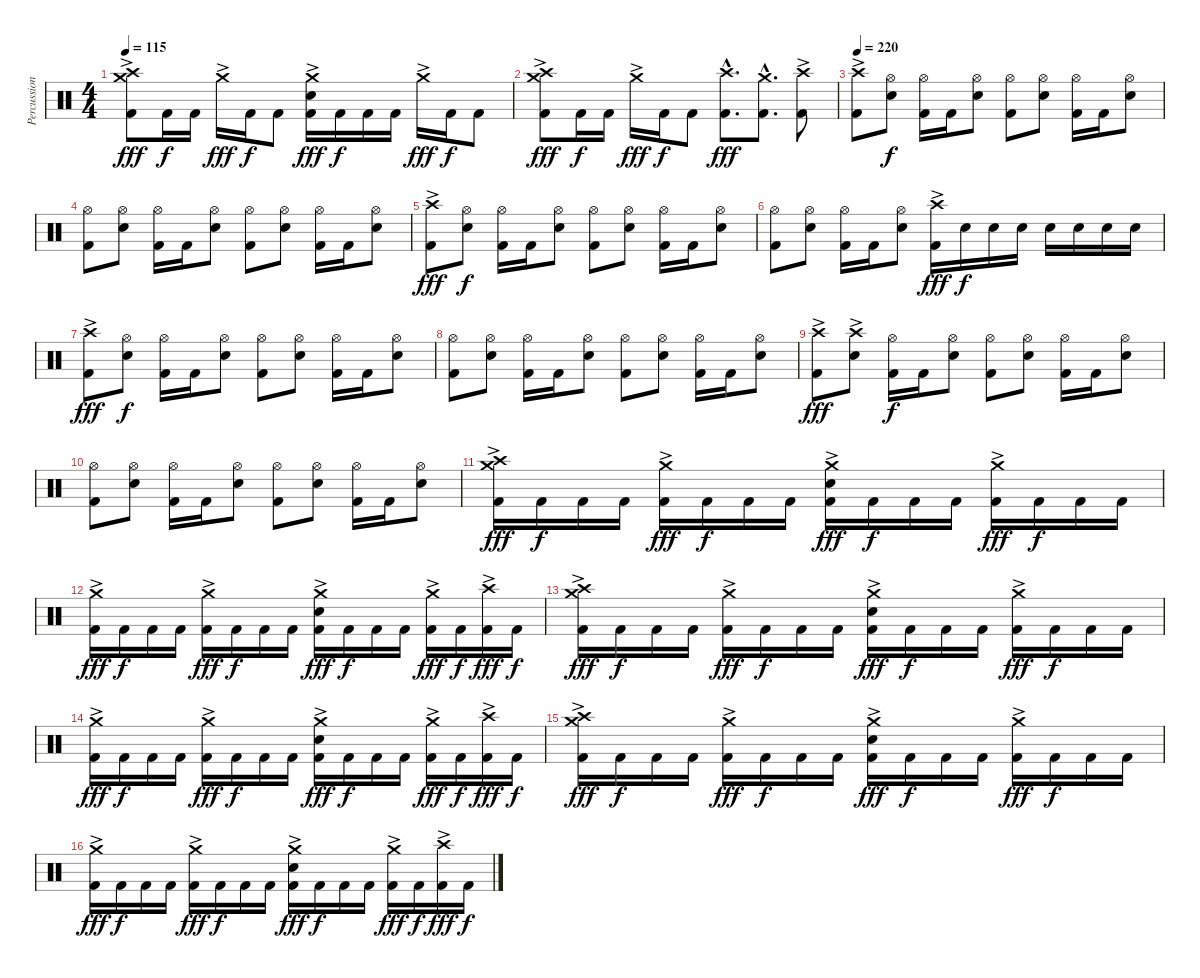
\track ("Percussion" "Percussion") {instrument percussion}
\staff {score}
\articulation defaults
\ts (4 4)
\tempo 115
\clef neutral
\ks c
("Crash high (hit)"{ac} "Crash medium (hit)"{ac} "Kick (hit) 2").8{dy fff} "Kick (hit) 2".16{dy f} "Kick (hit) 2".16 "Crash medium (hit)"{ac}.16{dy fff} "Kick (hit) 2".16{dy f} "Kick (hit) 2".8 ("Crash medium (hit)"{ac} "Electric Snare (hit)" "Kick (hit) 2").16{dy fff} "Kick (hit) 2".16{dy f} "Kick (hit) 2".16 "Kick (hit) 2".16 "Crash medium (hit)"{ac}.16{dy fff} "Kick (hit) 2".16{dy f} "Kick (hit) 2".8 |
("Crash high (hit)"{ac} "Crash medium (hit)"{ac} "Kick (hit) 2").8{dy fff} "Kick (hit) 2".16{dy f} "Kick (hit) 2".16 "Crash medium (hit)"{ac}.16{dy fff} "Kick (hit) 2".16{dy f} "Kick (hit) 2".8 ("Crash high (hit)"{hac} "Kick (hit) 2"{hac}).8{d dy fff} ("Crash medium (hit)"{hac} "Kick (hit) 2"{hac}).8{d} ("Crash high (hit)"{ac} "Kick (hit) 2").8 |
\tempo 220
("Crash high (hit)"{ac} "Kick (hit) 2").8 ("Hi-Hat (open)" "Electric Snare (hit)").8{dy f} ("Hi-Hat (open)" "Kick (hit) 2").16 "Kick (hit) 2".16 ("Hi-Hat (open)" "Electric Snare (hit)").8 ("Hi-Hat (open)" "Kick (hit) 2").8 ("Hi-Hat (open)" "Electric Snare (hit)").8 ("Hi-Hat (open)" "Kick (hit) 2").16 "Kick (hit) 2".16 ("Hi-Hat (open)" "Electric Snare (hit)").8 |
("Hi-Hat (open)" "Kick (hit) 2").8 ("Hi-Hat (open)" "Electric Snare (hit)").8 ("Hi-Hat (open)" "Kick (hit) 2").16 "Kick (hit) 2".16 ("Hi-Hat (open)" "Electric Snare (hit)").8 ("Hi-Hat (open)" "Kick (hit) 2").8 ("Hi-Hat (open)" "Electric Snare (hit)").8 ("Hi-Hat (open)" "Kick (hit) 2").16 "Kick (hit) 2".16 ("Hi-Hat (open)" "Electric Snare (hit)").8 |
("Crash high (hit)"{ac} "Kick (hit) 2").8{dy fff} ("Hi-Hat (open)" "Electric Snare (hit)").8{dy f} ("Hi-Hat (open)" "Kick (hit) 2").16 "Kick (hit) 2".16 ("Hi-Hat (open)" "Electric Snare (hit)").8 ("Hi-Hat (open)" "Kick (hit) 2").8 ("Hi-Hat (open)" "Electric Snare (hit)").8 ("Hi-Hat (open)" "Kick (hit) 2").16 "Kick (hit) 2".16 ("Hi-Hat (open)" "Electric Snare (hit)").8 |
("Hi-Hat (open)" "Kick (hit) 2").8 ("Hi-Hat (open)" "Electric Snare (hit)").8 ("Hi-Hat (open)" "Kick (hit) 2").16 "Kick (hit) 2".16 ("Hi-Hat (open)" "Electric Snare (hit)").8 ("Crash high (hit)"{ac} "Kick (hit) 2").16{dy fff} "Electric Snare (hit)".16{dy f} "Electric Snare (hit)".16 "Electric Snare (hit)".16 "Electric Snare (hit)".16 "Electric Snare (hit)".16 "Electric Snare (hit)".16 "Electric Snare (hit)".16 |
("Crash high (hit)"{ac} "Kick (hit) 2").8{dy fff} ("Hi-Hat (open)" "Electric Snare (hit)").8{dy f} ("Hi-Hat (open)" "Kick (hit) 2").16 "Kick (hit) 2".16 ("Hi-Hat (open)" "Electric Snare (hit)").8 ("Hi-Hat (open)" "Kick (hit) 2").8 ("Hi-Hat (open)" "Electric Snare (hit)").8 ("Hi-Hat (open)" "Kick (hit) 2").16 "Kick (hit) 2".16 ("Hi-Hat (open)" "Electric Snare (hit)").8 |
("Hi-Hat (open)" "Kick (hit) 2").8 ("Hi-Hat (open)" "Electric Snare (hit)").8 ("Hi-Hat (open)" "Kick (hit) 2").16 "Kick (hit) 2".16 ("Hi-Hat (open)" "Electric Snare (hit)").8 ("Hi-Hat (open)" "Kick (hit) 2").8 ("Hi-Hat (open)" "Electric Snare (hit)").8 ("Hi-Hat (open)" "Kick (hit) 2").16 "Kick (hit) 2".16 ("Hi-Hat (open)" "Electric Snare (hit)").8 |
("Crash high (hit)"{ac} "Kick (hit) 2").8{dy fff} ("Crash high (hit)"{ac} "Electric Snare (hit)").8 ("Hi-Hat (open)" "Kick (hit) 2").16{dy f} "Kick (hit) 2".16 ("Hi-Hat (open)" "Electric Snare (hit)").8 ("Hi-Hat (open)" "Kick (hit) 2").8 ("Hi-Hat (open)" "Electric Snare (hit)").8 ("Hi-Hat (open)" "Kick (hit) 2").16 "Kick (hit) 2".16 ("Hi-Hat (open)" "Electric Snare (hit)").8 |
("Hi-Hat (open)" "Kick (hit) 2").8 ("Hi-Hat (open)" "Electric Snare (hit)").8 ("Hi-Hat (open)" "Kick (hit) 2").16 "Kick (hit) 2".16 ("Hi-Hat (open)" "Electric Snare (hit)").8 ("Hi-Hat (open)" "Kick (hit) 2").8 ("Hi-Hat (open)" "Electric Snare (hit)").8 ("Hi-Hat (open)" "Kick (hit) 2").16 "Kick (hit) 2".16 ("Hi-Hat (open)" "Electric Snare (hit)").8 |
("Crash high (hit)" "Crash medium (hit)"{ac} "Kick (hit) 2").16{dy fff} "Kick (hit) 2".16{dy f} "Kick (hit) 2".16 "Kick (hit) 2".16 ("Crash medium (hit)"{ac} "Kick (hit) 2").16{dy fff} "Kick (hit) 2".16{dy f} "Kick (hit) 2".16 "Kick (hit) 2".16 ("Crash medium (hit)"{ac} "Electric Snare (hit)" "Kick (hit) 2").16{dy fff} "Kick (hit) 2".16{dy f} "Kick (hit) 2".16 "Kick (hit) 2".16 ("Crash medium (hit)"{ac} "Kick (hit) 2").16{dy fff} "Kick (hit) 2".16{dy f} "Kick (hit) 2".16 "Kick (hit) 2".16 |
("Crash medium (hit)"{ac} "Kick (hit) 2").16{dy fff} "Kick (hit) 2".16{dy f} "Kick (hit) 2".16 "Kick (hit) 2".16 ("Crash medium (hit)"{ac} "Kick (hit) 2").16{dy fff} "Kick (hit) 2".16{dy f} "Kick (hit) 2".16 "Kick (hit) 2".16 ("Crash medium (hit)"{ac} "Electric Snare (hit)" "Kick (hit) 2").16{dy fff} "Kick (hit) 2".16{dy f} "Kick (hit) 2".16 "Kick (hit) 2".16 ("Crash medium (hit)"{ac} "Kick (hit) 2").16{dy fff} "Kick (hit) 2".16{dy f} ("Crash high (hit)"{ac} "Kick (hit) 2").16{dy fff} "Kick (hit) 2".16{dy f} |
("Crash high (hit)" "Crash medium (hit)"{ac} "Kick (hit) 2").16{dy fff} "Kick (hit) 2".16{dy f} "Kick (hit) 2".16 "Kick (hit) 2".16 ("Crash medium (hit)"{ac} "Kick (hit) 2").16{dy fff} "Kick (hit) 2".16{dy f} "Kick (hit) 2".16 "Kick (hit) 2".16 ("Crash medium (hit)"{ac} "Electric Snare (hit)" "Kick (hit) 2").16{dy fff} "Kick (hit) 2".16{dy f} "Kick (hit) 2".16 "Kick (hit) 2".16 ("Crash medium (hit)"{ac} "Kick (hit) 2").16{dy fff} "Kick (hit) 2".16{dy f} "Kick (hit) 2".16 "Kick (hit) 2".16 |
("Crash medium (hit)"{ac} "Kick (hit) 2").16{dy fff} "Kick (hit) 2".16{dy f} "Kick (hit) 2".16 "Kick (hit) 2".16 ("Crash medium (hit)"{ac} "Kick (hit) 2").16{dy fff} "Kick (hit) 2".16{dy f} "Kick (hit) 2".16 "Kick (hit) 2".16 ("Crash medium (hit)"{ac} "Electric Snare (hit)" "Kick (hit) 2").16{dy fff} "Kick (hit) 2".16{dy f} "Kick (hit) 2".16 "Kick (hit) 2".16 ("Crash medium (hit)"{ac} "Kick (hit) 2").16{dy fff} "Kick (hit) 2".16{dy f} ("Crash high (hit)"{ac} "Kick (hit) 2").16{dy fff} "Kick (hit) 2".16{dy f} |
("Crash high (hit)" "Crash medium (hit)"{ac} "Kick (hit) 2").16{dy fff} "Kick (hit) 2".16{dy f} "Kick (hit) 2".16 "Kick (hit) 2".16 ("Crash medium (hit)"{ac} "Kick (hit) 2").16{dy fff} "Kick (hit) 2".16{dy f} "Kick (hit) 2".16 "Kick (hit) 2".16 ("Crash medium (hit)"{ac} "Electric Snare (hit)" "Kick (hit) 2").16{dy fff} "Kick (hit) 2".16{dy f} "Kick (hit) 2".16 "Kick (hit) 2".16 ("Crash medium (hit)"{ac} "Kick (hit) 2").16{dy fff} "Kick (hit) 2".16{dy f} "Kick (hit) 2".16 "Kick (hit) 2".16 |
("Crash medium (hit)"{ac} "Kick (hit) 2").16{dy fff} "Kick (hit) 2".16{dy f} "Kick (hit) 2".16 "Kick (hit) 2".16 ("Crash medium (hit)"{ac} "Kick (hit) 2").16{dy fff} "Kick (hit) 2".16{dy f} "Kick (hit) 2".16 "Kick (hit) 2".16 ("Crash medium (hit)"{ac} "Electric Snare (hit)" "Kick (hit) 2").16{dy fff} "Kick (hit) 2".16{dy f} "Kick (hit) 2".16 "Kick (hit) 2".16 ("Crash medium (hit)"{ac} "Kick (hit) 2").16{dy fff} "Kick (hit) 2".16{dy f} ("Crash high (hit)"{ac} "Kick (hit) 2").16{dy fff} "Kick (hit) 2".16{dy f}
